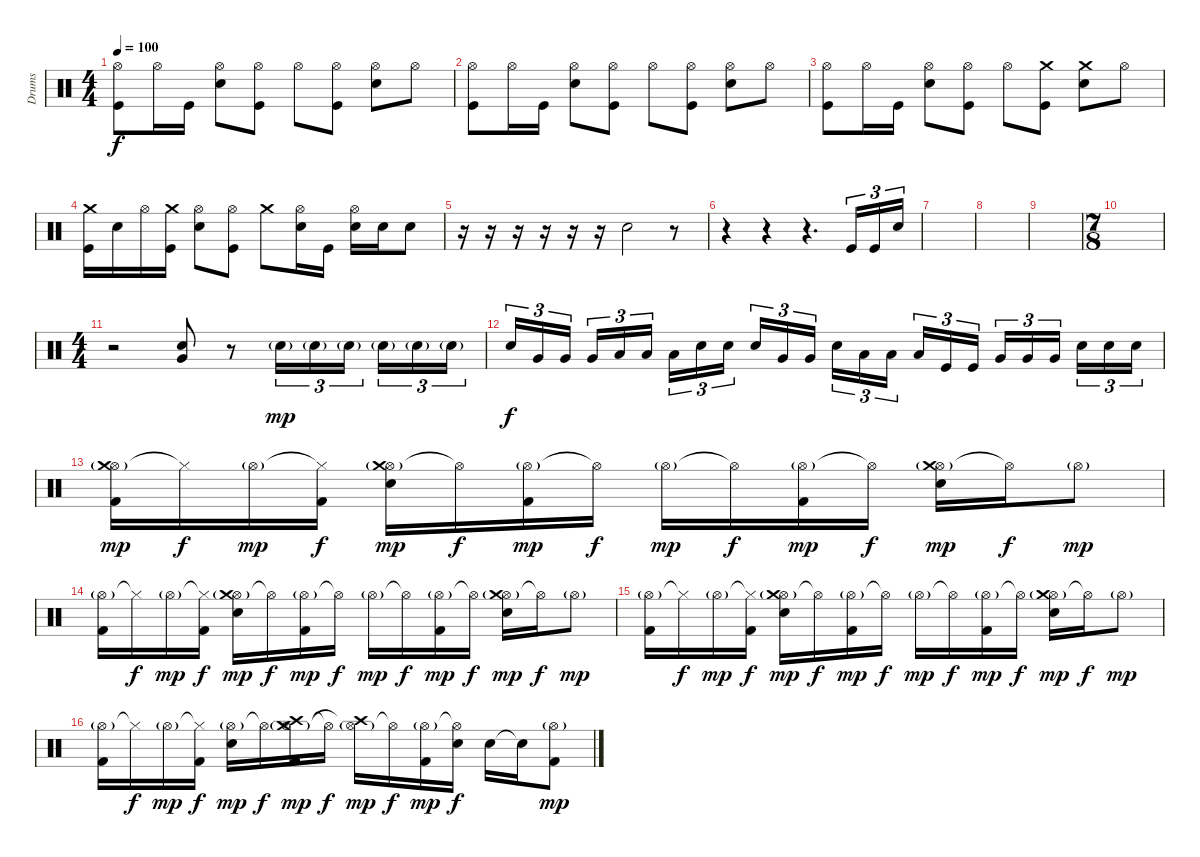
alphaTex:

\track ("Drums" "Drums") {instrument percussion}
\staff {score}
\articulation defaults
\ts (4 4)
\tempo 100
\clef neutral
\ks c
("Hi-Hat (open)" "Kick (hit)").8{dy f} "Hi-Hat (open)".16 "Kick (hit)".16 ("Hi-Hat (open)" "Electric Snare (hit)").8 ("Hi-Hat (open)" "Kick (hit)").8 "Hi-Hat (open)".8 ("Hi-Hat (open)" "Kick (hit)").8 ("Hi-Hat (open)" "Electric Snare (hit)").8 "Hi-Hat (open)".8 |
("Hi-Hat (open)" "Kick (hit)").8 "Hi-Hat (open)".16 "Kick (hit)".16 ("Hi-Hat (open)" "Electric Snare (hit)").8 ("Hi-Hat (open)" "Kick (hit)").8 "Hi-Hat (open)".8 ("Hi-Hat (open)" "Kick (hit)").8 ("Hi-Hat (open)" "Electric Snare (hit)").8 "Hi-Hat (open)".8 |
("Hi-Hat (open)" "Kick (hit)").8 "Hi-Hat (open)".16 "Kick (hit)".16 ("Hi-Hat (open)" "Electric Snare (hit)").8 ("Hi-Hat (open)" "Kick (hit)").8 "Hi-Hat (open)".8 ("Crash medium (hit)" "Kick (hit)").8 ("Crash medium (hit)" "Electric Snare (hit)").8 "Hi-Hat (open)".8 |
("Crash medium (hit)" "Kick (hit)").16 "Electric Snare (hit)".16 "Hi-Hat (open)".16 ("Crash medium (hit)" "Kick (hit)").16 ("Hi-Hat (open)" "Electric Snare (hit)").8 ("Hi-Hat (open)" "Kick (hit)").8 "Crash medium (hit)".8 ("Hi-Hat (open)" "Electric Snare (hit)").16 "Kick (hit)".16 ("Hi-Hat (open)" "Electric Snare (hit)").16 "Electric Snare (hit)".16 "Electric Snare (hit)".8 |
r.16 r.16 r.16 r.16 r.16 r.16 "Electric Snare (hit)".2 r.8 |
r.4 r.4 r.4{d} "Kick (hit)".16{tu (3 2)} "Kick (hit)".16{tu (3 2)} "Electric Snare (hit)".16{tu (3 2)} |
|
|
|
\ts (7 8)
|
\ts (4 4)
r.2 ("Electric Snare (hit)" "Very Low Tom (hit)").8 r.8 "Electric Snare (hit)"{g}.16{tu (3 2) dy mp} "Electric Snare (hit)"{g}.16{tu (3 2)} "Electric Snare (hit)"{g}.16{tu (3 2) beam splitsecondary} "Electric Snare (hit)"{g}.16{tu (3 2)} "Electric Snare (hit)"{g}.16{tu (3 2)} "Electric Snare (hit)"{g}.16{tu (3 2)} |
"Electric Snare (hit)".16{tu (3 2) dy f} "Very Low Tom (hit)".16{tu (3 2)} "Very Low Tom (hit)".16{tu (3 2) beam splitsecondary} "Very Low Tom (hit)".16{tu (3 2)} "Low Floor Tom (hit)".16{tu (3 2)} "Low Floor Tom (hit)".16{tu (3 2)} "Low Floor Tom (hit)".16{tu (3 2)} "Electric Snare (hit)".16{tu (3 2)} "Electric Snare (hit)".16{tu (3 2) beam splitsecondary} "Electric Snare (hit)".16{tu (3 2)} "Very Low Tom (hit)".16{tu (3 2)} "Very Low Tom (hit)".16{tu (3 2)} "Electric Snare (hit)".16{tu (3 2)} "Low Tom (hit)".16{tu (3 2)} "Low Tom (hit)".16{tu (3 2) beam splitsecondary} "Low Tom (hit)".16{tu (3 2)} "Kick (hit)".16{tu (3 2)} "Kick (hit)".16{tu (3 2)} "Very Low Tom (hit)".16{tu (3 2)} "Very Low Tom (hit)".16{tu (3 2)} "Very Low Tom (hit)".16{tu (3 2) beam splitsecondary} "Electric Snare (hit)".16{tu (3 2)} "Electric Snare (hit)".16{tu (3 2)} "Electric Snare (hit)".16{tu (3 2)} |
("Hi-Hat (open)"{g} "Crash medium (hit)" "Kick (hit) 2").16{dy mp} "Hi-Hat (closed)"{t}.16{dy f} "Hi-Hat (open)"{g}.16{dy mp} ("Hi-Hat (closed)"{t} "Kick (hit) 2").16{dy f} ("Hi-Hat (open)"{g} "Crash medium (hit)"{g} "Electric Snare (hit)").16{dy mp} "Hi-Hat (open)"{t}.16{dy f} ("Hi-Hat (open)"{g} "Kick (hit) 2").16{dy mp} "Hi-Hat (open)"{t}.16{dy f} "Hi-Hat (open)"{g}.16{dy mp} "Hi-Hat (open)"{t}.16{dy f} ("Hi-Hat (open)"{g} "Kick (hit) 2").16{dy mp} "Hi-Hat (open)"{t}.16{dy f} ("Hi-Hat (open)"{g} "Crash medium (hit)"{g} "Electric Snare (hit)").16{dy mp} "Hi-Hat (open)"{t}.16{dy f} "Hi-Hat (open)"{g}.8{dy mp} |
("Hi-Hat (open)"{g} "Kick (hit) 2").16 "Hi-Hat (closed)"{t}.16{dy f} "Hi-Hat (open)"{g}.16{dy mp} ("Hi-Hat (closed)"{t} "Kick (hit) 2").16{dy f} ("Hi-Hat (open)"{g} "Crash medium (hit)"{g} "Electric Snare (hit)").16{dy mp} "Hi-Hat (open)"{t}.16{dy f} ("Hi-Hat (open)"{g} "Kick (hit) 2").16{dy mp} "Hi-Hat (open)"{t}.16{dy f} "Hi-Hat (open)"{g}.16{dy mp} "Hi-Hat (open)"{t}.16{dy f} ("Hi-Hat (open)"{g} "Kick (hit) 2").16{dy mp} "Hi-Hat (open)"{t}.16{dy f} ("Hi-Hat (open)"{g} "Crash medium (hit)"{g} "Electric Snare (hit)").16{dy mp} "Hi-Hat (open)"{t}.16{dy f} "Hi-Hat (open)"{g}.8{dy mp} |
("Hi-Hat (open)"{g} "Kick (hit) 2").16 "Hi-Hat (closed)"{t}.16{dy f} "Hi-Hat (open)"{g}.16{dy mp} ("Hi-Hat (closed)"{t} "Kick (hit) 2").16{dy f} ("Hi-Hat (open)"{g} "Crash medium (hit)"{g} "Electric Snare (hit)").16{dy mp} "Hi-Hat (open)"{t}.16{dy f} ("Hi-Hat (open)"{g} "Kick (hit) 2").16{dy mp} "Hi-Hat (open)"{t}.16{dy f} "Hi-Hat (open)"{g}.16{dy mp} "Hi-Hat (open)"{t}.16{dy f} ("Hi-Hat (open)"{g} "Kick (hit) 2").16{dy mp} "Hi-Hat (open)"{t}.16{dy f} ("Hi-Hat (open)"{g} "Crash medium (hit)"{g} "Electric Snare (hit)").16{dy mp} "Hi-Hat (open)"{t}.16{dy f} "Hi-Hat (open)"{g}.8{dy mp} |
("Hi-Hat (open)"{g} "Kick (hit) 2").16 "Hi-Hat (closed)"{t}.16{dy f} "Hi-Hat (open)"{g}.16{dy mp} ("Hi-Hat (closed)"{t} "Kick (hit) 2").16{dy f} ("Hi-Hat (open)"{g} "Electric Snare (hit)").16{dy mp} "Hi-Hat (open)"{t}.16{dy f} ("Hi-Hat (open)"{g} "Crash medium (hit)"{g} "Crash high (hit)" "Kick (hit) 2").16{dy mp} "Hi-Hat (open)"{t}.16{dy f} ("Hi-Hat (open)"{g} "Crash high (hit)"{t}).16{dy mp} "Hi-Hat (open)"{t}.16{dy f} ("Hi-Hat (open)"{g} "Kick (hit) 2").16{dy mp} ("Hi-Hat (open)"{t} "Electric Snare (hit)").16{dy f} "Electric Snare (hit)".16 "Electric Snare (hit)"{t}.16 ("Hi-Hat (open)"{g} "Kick (hit) 2").8{dy mp}
